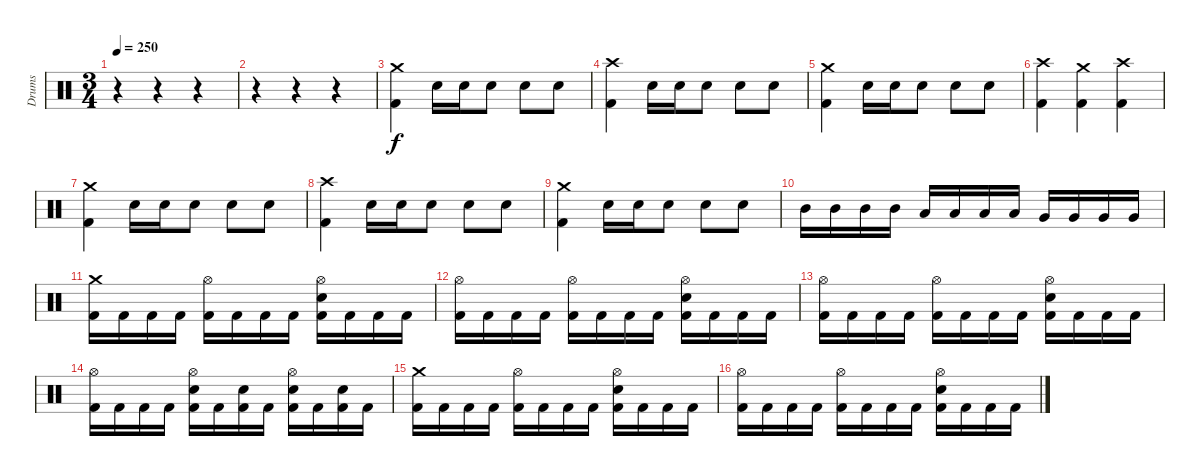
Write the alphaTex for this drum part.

\track ("Drums" "Drums") {instrument percussion}
\staff {score}
\articulation defaults
\ts (3 4)
\tempo 250
\clef neutral
\ks c
r.4{dy f} r.4 r.4 |
r.4 r.4 r.4 |
("Crash medium (hit)" "Kick (hit) 2").4 "Snare (hit) 2".16 "Snare (hit) 2".16 "Snare (hit) 2".8 "Snare (hit) 2".8 "Snare (hit) 2".8 |
("Crash high (hit)" "Kick (hit) 2").4 "Snare (hit) 2".16 "Snare (hit) 2".16 "Snare (hit) 2".8 "Snare (hit) 2".8 "Snare (hit) 2".8 |
("Crash medium (hit)" "Kick (hit) 2").4 "Snare (hit) 2".16 "Snare (hit) 2".16 "Snare (hit) 2".8 "Snare (hit) 2".8 "Snare (hit) 2".8 |
("Crash high (hit)" "Kick (hit) 2").4 ("Crash medium (hit)" "Kick (hit) 2").4 ("Crash high (hit)" "Kick (hit) 2").4 |
("Crash medium (hit)" "Kick (hit) 2").4 "Snare (hit) 2".16 "Snare (hit) 2".16 "Snare (hit) 2".8 "Snare (hit) 2".8 "Snare (hit) 2".8 |
("Crash high (hit)" "Kick (hit) 2").4 "Snare (hit) 2".16 "Snare (hit) 2".16 "Snare (hit) 2".8 "Snare (hit) 2".8 "Snare (hit) 2".8 |
("Crash medium (hit)" "Kick (hit) 2").4 "Snare (hit) 2".16 "Snare (hit) 2".16 "Snare (hit) 2".8 "Snare (hit) 2".8 "Snare (hit) 2".8 |
"Mid Tom (hit)".16 "Mid Tom (hit)".16 "Mid Tom (hit)".16 "Mid Tom (hit)".16 "Low Tom (hit)".16 "Low Tom (hit)".16 "Low Tom (hit)".16 "Low Tom (hit)".16 "Very Low Tom (hit)".16 "Very Low Tom (hit)".16 "Very Low Tom (hit)".16 "Very Low Tom (hit)".16 |
("Crash medium (hit)" "Kick (hit) 2").16 "Kick (hit) 2".16 "Kick (hit) 2".16 "Kick (hit) 2".16 ("Hi-Hat (open)" "Kick (hit) 2").16 "Kick (hit) 2".16 "Kick (hit) 2".16 "Kick (hit) 2".16 ("Hi-Hat (open)" "Snare (hit) 2" "Kick (hit) 2").16 "Kick (hit) 2".16 "Kick (hit) 2".16 "Kick (hit) 2".16 |
("Hi-Hat (open)" "Kick (hit) 2").16 "Kick (hit) 2".16 "Kick (hit) 2".16 "Kick (hit) 2".16 ("Hi-Hat (open)" "Kick (hit) 2").16 "Kick (hit) 2".16 "Kick (hit) 2".16 "Kick (hit) 2".16 ("Kick (hit) 2" "Hi-Hat (open)" "Snare (hit) 2").16 "Kick (hit) 2".16 "Kick (hit) 2".16 "Kick (hit) 2".16 |
("Hi-Hat (open)" "Kick (hit) 2").16 "Kick (hit) 2".16 "Kick (hit) 2".16 "Kick (hit) 2".16 ("Hi-Hat (open)" "Kick (hit) 2").16 "Kick (hit) 2".16 "Kick (hit) 2".16 "Kick (hit) 2".16 ("Kick (hit) 2" "Hi-Hat (open)" "Snare (hit) 2").16 "Kick (hit) 2".16 "Kick (hit) 2".16 "Kick (hit) 2".16 |
("Hi-Hat (open)" "Kick (hit) 2").16 "Kick (hit) 2".16 "Kick (hit) 2".16 "Kick (hit) 2".16 ("Kick (hit) 2" "Hi-Hat (open)" "Snare (hit) 2").16 "Kick (hit) 2".16 ("Kick (hit) 2" "Snare (hit) 2").16 "Kick (hit) 2".16 ("Kick (hit) 2" "Hi-Hat (open)" "Snare (hit) 2").16 "Kick (hit) 2".16 ("Kick (hit) 2" "Snare (hit) 2").16 "Kick (hit) 2".16 |
("Crash medium (hit)" "Kick (hit) 2").16 "Kick (hit) 2".16 "Kick (hit) 2".16 "Kick (hit) 2".16 ("Hi-Hat (open)" "Kick (hit) 2").16 "Kick (hit) 2".16 "Kick (hit) 2".16 "Kick (hit) 2".16 ("Kick (hit) 2" "Hi-Hat (open)" "Snare (hit) 2").16 "Kick (hit) 2".16 "Kick (hit) 2".16 "Kick (hit) 2".16 |
("Hi-Hat (open)" "Kick (hit) 2").16 "Kick (hit) 2".16 "Kick (hit) 2".16 "Kick (hit) 2".16 ("Hi-Hat (open)" "Kick (hit) 2").16 "Kick (hit) 2".16 "Kick (hit) 2".16 "Kick (hit) 2".16 ("Kick (hit) 2" "Hi-Hat (open)" "Snare (hit) 2").16 "Kick (hit) 2".16 "Kick (hit) 2".16 "Kick (hit) 2".16
